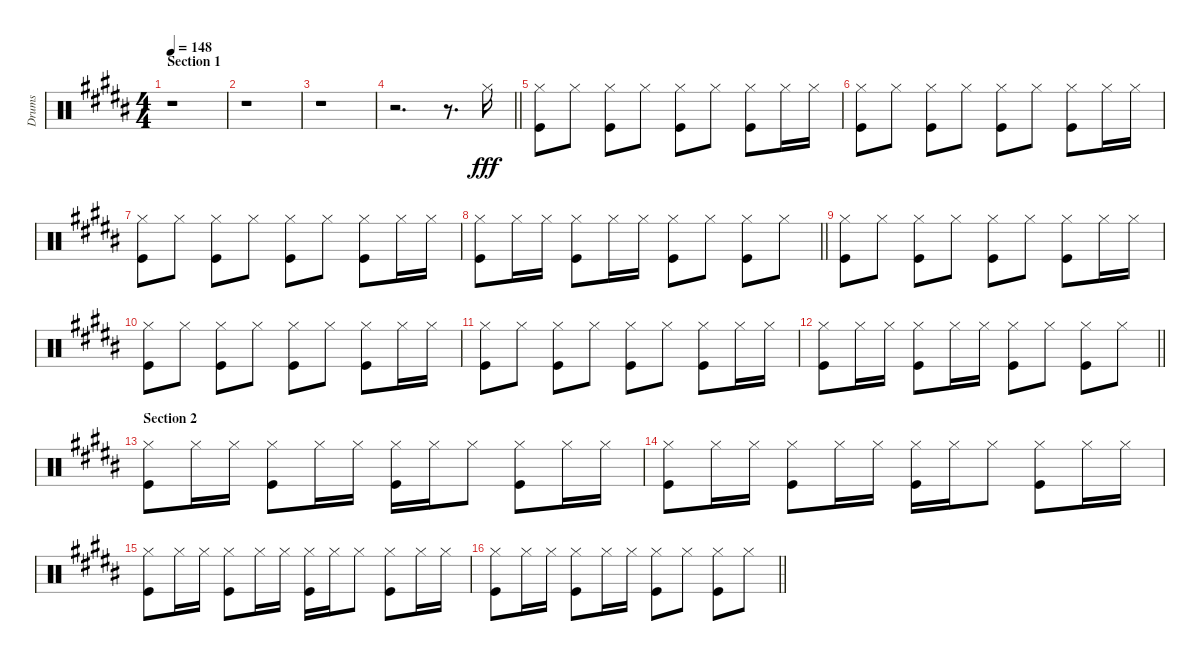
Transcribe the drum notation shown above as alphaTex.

\track ("Drums" "Drums") {instrument percussion}
\staff {score}
\articulation defaults
\ts (4 4)
\section ("" "Section 1")
\tempo 148
\clef neutral
\ks b
r.1{dy fff} |
r.1 |
r.1 |
\barLineRight lightlight
r.2{d} r.8{d} "Hi-Hat (closed)".16 |
("Hi-Hat (closed)" "Kick (hit)").8 "Hi-Hat (closed)".8 ("Hi-Hat (closed)" "Kick (hit)").8 "Hi-Hat (closed)".8 ("Hi-Hat (closed)" "Kick (hit)").8 "Hi-Hat (closed)".8 ("Hi-Hat (closed)" "Kick (hit)").8 "Hi-Hat (closed)".16 "Hi-Hat (closed)".16 |
("Hi-Hat (closed)" "Kick (hit)").8 "Hi-Hat (closed)".8 ("Hi-Hat (closed)" "Kick (hit)").8 "Hi-Hat (closed)".8 ("Hi-Hat (closed)" "Kick (hit)").8 "Hi-Hat (closed)".8 ("Hi-Hat (closed)" "Kick (hit)").8 "Hi-Hat (closed)".16 "Hi-Hat (closed)".16 |
("Hi-Hat (closed)" "Kick (hit)").8 "Hi-Hat (closed)".8 ("Hi-Hat (closed)" "Kick (hit)").8 "Hi-Hat (closed)".8 ("Hi-Hat (closed)" "Kick (hit)").8 "Hi-Hat (closed)".8 ("Hi-Hat (closed)" "Kick (hit)").8 "Hi-Hat (closed)".16 "Hi-Hat (closed)".16 |
\barLineRight lightlight
("Hi-Hat (closed)" "Kick (hit)").8 "Hi-Hat (closed)".16 "Hi-Hat (closed)".16 ("Hi-Hat (closed)" "Kick (hit)").8 "Hi-Hat (closed)".16 "Hi-Hat (closed)".16 ("Hi-Hat (closed)" "Kick (hit)").8 "Hi-Hat (closed)".8 ("Hi-Hat (closed)" "Kick (hit)").8 "Hi-Hat (closed)".8 |
("Hi-Hat (closed)" "Kick (hit)").8 "Hi-Hat (closed)".8 ("Hi-Hat (closed)" "Kick (hit)").8 "Hi-Hat (closed)".8 ("Hi-Hat (closed)" "Kick (hit)").8 "Hi-Hat (closed)".8 ("Hi-Hat (closed)" "Kick (hit)").8 "Hi-Hat (closed)".16 "Hi-Hat (closed)".16 |
("Hi-Hat (closed)" "Kick (hit)").8 "Hi-Hat (closed)".8 ("Hi-Hat (closed)" "Kick (hit)").8 "Hi-Hat (closed)".8 ("Hi-Hat (closed)" "Kick (hit)").8 "Hi-Hat (closed)".8 ("Hi-Hat (closed)" "Kick (hit)").8 "Hi-Hat (closed)".16 "Hi-Hat (closed)".16 |
("Hi-Hat (closed)" "Kick (hit)").8 "Hi-Hat (closed)".8 ("Hi-Hat (closed)" "Kick (hit)").8 "Hi-Hat (closed)".8 ("Hi-Hat (closed)" "Kick (hit)").8 "Hi-Hat (closed)".8 ("Hi-Hat (closed)" "Kick (hit)").8 "Hi-Hat (closed)".16 "Hi-Hat (closed)".16 |
\barLineRight lightlight
("Hi-Hat (closed)" "Kick (hit)").8 "Hi-Hat (closed)".16 "Hi-Hat (closed)".16 ("Hi-Hat (closed)" "Kick (hit)").8 "Hi-Hat (closed)".16 "Hi-Hat (closed)".16 ("Hi-Hat (closed)" "Kick (hit)").8 "Hi-Hat (closed)".8 ("Hi-Hat (closed)" "Kick (hit)").8 "Hi-Hat (closed)".8 |
\section ("" "Section 2")
("Hi-Hat (closed)" "Kick (hit)").8 "Hi-Hat (closed)".16 "Hi-Hat (closed)".16 ("Hi-Hat (closed)" "Kick (hit)").8 "Hi-Hat (closed)".16 "Hi-Hat (closed)".16 ("Hi-Hat (closed)" "Kick (hit)").16 "Hi-Hat (closed)".16 "Hi-Hat (closed)".8 ("Hi-Hat (closed)" "Kick (hit)").8 "Hi-Hat (closed)".16 "Hi-Hat (closed)".16 |
("Hi-Hat (closed)" "Kick (hit)").8 "Hi-Hat (closed)".16 "Hi-Hat (closed)".16 ("Hi-Hat (closed)" "Kick (hit)").8 "Hi-Hat (closed)".16 "Hi-Hat (closed)".16 ("Hi-Hat (closed)" "Kick (hit)").16 "Hi-Hat (closed)".16 "Hi-Hat (closed)".8 ("Hi-Hat (closed)" "Kick (hit)").8 "Hi-Hat (closed)".16 "Hi-Hat (closed)".16 |
("Hi-Hat (closed)" "Kick (hit)").8 "Hi-Hat (closed)".16 "Hi-Hat (closed)".16 ("Hi-Hat (closed)" "Kick (hit)").8 "Hi-Hat (closed)".16 "Hi-Hat (closed)".16 ("Hi-Hat (closed)" "Kick (hit)").16 "Hi-Hat (closed)".16 "Hi-Hat (closed)".8 ("Hi-Hat (closed)" "Kick (hit)").8 "Hi-Hat (closed)".16 "Hi-Hat (closed)".16 |
\barLineRight lightlight
("Hi-Hat (closed)" "Kick (hit)").8 "Hi-Hat (closed)".16 "Hi-Hat (closed)".16 ("Hi-Hat (closed)" "Kick (hit)").8 "Hi-Hat (closed)".16 "Hi-Hat (closed)".16 ("Hi-Hat (closed)" "Kick (hit)").8 "Hi-Hat (closed)".8 ("Hi-Hat (closed)" "Kick (hit)").8 "Hi-Hat (closed)".8
